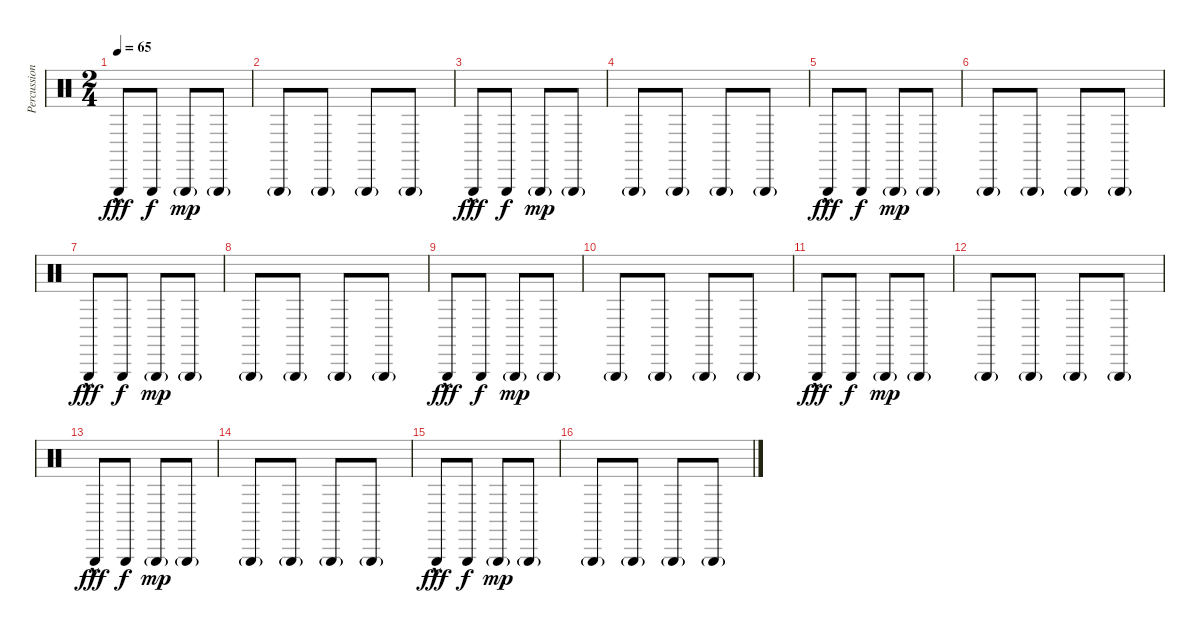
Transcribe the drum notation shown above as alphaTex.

\track ("Percussions" "Percussion") {instrument percussion}
\staff {score}
\articulation defaults
\ts (2 4)
\tempo 65
\clef neutral
\ks c "Triangle (hit)"{hac}.8{dy fff} "Triangle (hit)".8{dy f} "Triangle (hit)"{g}.8{dy mp} "Triangle (hit)"{g}.8
|
"Triangle (hit)"{g}.8 "Triangle (hit)"{g}.8 "Triangle (hit)"{g}.8 "Triangle (hit)"{g}.8 |
"Triangle (hit)"{hac}.8{dy fff} "Triangle (hit)".8{dy f} "Triangle (hit)"{g}.8{dy mp} "Triangle (hit)"{g}.8 |
"Triangle (hit)"{g}.8 "Triangle (hit)"{g}.8 "Triangle (hit)"{g}.8 "Triangle (hit)"{g}.8 |
"Triangle (hit)"{hac}.8{dy fff} "Triangle (hit)".8{dy f} "Triangle (hit)"{g}.8{dy mp} "Triangle (hit)"{g}.8 |
"Triangle (hit)"{g}.8 "Triangle (hit)"{g}.8 "Triangle (hit)"{g}.8 "Triangle (hit)"{g}.8 |
"Triangle (hit)"{hac}.8{dy fff} "Triangle (hit)".8{dy f} "Triangle (hit)"{g}.8{dy mp} "Triangle (hit)"{g}.8 |
"Triangle (hit)"{g}.8 "Triangle (hit)"{g}.8 "Triangle (hit)"{g}.8 "Triangle (hit)"{g}.8 |
"Triangle (hit)"{hac}.8{dy fff} "Triangle (hit)".8{dy f} "Triangle (hit)"{g}.8{dy mp} "Triangle (hit)"{g}.8 |
"Triangle (hit)"{g}.8 "Triangle (hit)"{g}.8 "Triangle (hit)"{g}.8 "Triangle (hit)"{g}.8 |
"Triangle (hit)"{hac}.8{dy fff} "Triangle (hit)".8{dy f} "Triangle (hit)"{g}.8{dy mp} "Triangle (hit)"{g}.8 |
"Triangle (hit)"{g}.8 "Triangle (hit)"{g}.8 "Triangle (hit)"{g}.8 "Triangle (hit)"{g}.8 |
"Triangle (hit)"{hac}.8{dy fff} "Triangle (hit)".8{dy f} "Triangle (hit)"{g}.8{dy mp} "Triangle (hit)"{g}.8 |
"Triangle (hit)"{g}.8 "Triangle (hit)"{g}.8 "Triangle (hit)"{g}.8 "Triangle (hit)"{g}.8 |
"Triangle (hit)"{hac}.8{dy fff} "Triangle (hit)".8{dy f} "Triangle (hit)"{g}.8{dy mp} "Triangle (hit)"{g}.8 |
"Triangle (hit)"{g}.8 "Triangle (hit)"{g}.8 "Triangle (hit)"{g}.8 "Triangle (hit)"{g}.8
